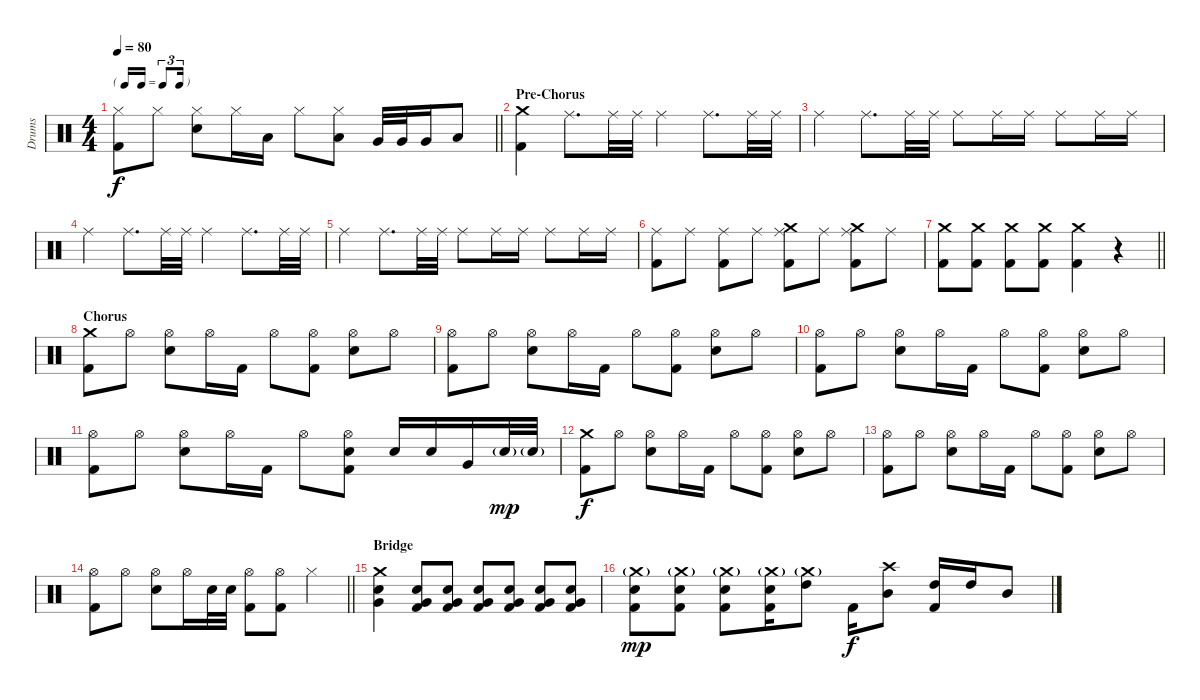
\track ("Drums" "Drums") {instrument percussion}
\staff {score}
\articulation defaults
\ts (4 4)
\tf triplet16th
\tempo 80
\clef neutral
\barLineRight lightlight
\ks c
("Hi-Hat (closed)" "Kick (hit) 2").8{dy f} "Hi-Hat (closed)".8 ("Hi-Hat (closed)" "Snare (hit) 2").8 "Hi-Hat (closed)".16 "Low Tom (hit)".16 "Hi-Hat (closed)".8 ("Hi-Hat (closed)" "Low Tom (hit)").8 "Very Low Tom (hit)".32 "Very Low Tom (hit)".32 "Very Low Tom (hit)".16 "Low Floor Tom (hit)".8 |
\section ("" "Pre-Chorus")
("Crash medium (hit)" "Kick (hit) 2").4 "Ride (middle)".8{d} "Ride (middle)".32 "Ride (middle)".32 "Ride (middle)".4 "Ride (middle)".8{d} "Ride (middle)".32 "Ride (middle)".32 |
"Ride (middle)".4 "Ride (middle)".8{d} "Ride (middle)".32 "Ride (middle)".32 "Ride (middle)".8 "Ride (middle)".16 "Ride (middle)".16 "Ride (middle)".8 "Ride (middle)".16 "Ride (middle)".16 |
"Ride (middle)".4 "Ride (middle)".8{d} "Ride (middle)".32 "Ride (middle)".32 "Ride (middle)".4 "Ride (middle)".8{d} "Ride (middle)".32 "Ride (middle)".32 |
"Ride (middle)".4 "Ride (middle)".8{d} "Ride (middle)".32 "Ride (middle)".32 "Ride (middle)".8 "Ride (middle)".16 "Ride (middle)".16 "Ride (middle)".8 "Ride (middle)".16 "Ride (middle)".16 |
("Ride (middle)" "Kick (hit) 2").8 "Ride (middle)".8 ("Ride (middle)" "Kick (hit) 2").8 "Ride (middle)".8 ("Ride (middle)" "Crash medium (hit)" "Kick (hit) 2").8 "Ride (middle)".8 ("Ride (middle)" "Crash medium (hit)" "Kick (hit) 2").8 "Ride (middle)".8 |
\barLineRight lightlight
("Crash medium (hit)" "Kick (hit) 2").8 ("Crash medium (hit)" "Kick (hit) 2").8 ("Crash medium (hit)" "Kick (hit) 2").8 ("Crash medium (hit)" "Kick (hit) 2").8 ("Crash medium (hit)" "Kick (hit) 2").4 r.4 |
\section ("" "Chorus")
("Crash medium (hit)" "Kick (hit) 2").8 "Hi-Hat (open)".8 ("Hi-Hat (open)" "Snare (hit) 2").8 "Hi-Hat (open)".16 "Kick (hit) 2".16 "Hi-Hat (open)".8 ("Hi-Hat (open)" "Kick (hit) 2").8 ("Hi-Hat (open)" "Snare (hit) 2").8 "Hi-Hat (open)".8 |
("Hi-Hat (open)" "Kick (hit) 2").8 "Hi-Hat (open)".8 ("Hi-Hat (open)" "Snare (hit) 2").8 "Hi-Hat (open)".16 "Kick (hit) 2".16 "Hi-Hat (open)".8 ("Hi-Hat (open)" "Kick (hit) 2").8 ("Hi-Hat (open)" "Snare (hit) 2").8 "Hi-Hat (open)".8 |
("Hi-Hat (open)" "Kick (hit) 2").8 "Hi-Hat (open)".8 ("Hi-Hat (open)" "Snare (hit) 2").8 "Hi-Hat (open)".16 "Kick (hit) 2".16 "Hi-Hat (open)".8 ("Hi-Hat (open)" "Kick (hit) 2").8 ("Hi-Hat (open)" "Snare (hit) 2").8 "Hi-Hat (open)".8 |
("Hi-Hat (open)" "Kick (hit) 2").8 "Hi-Hat (open)".8 ("Hi-Hat (open)" "Snare (hit) 2").8 "Hi-Hat (open)".16 "Kick (hit) 2".16 "Hi-Hat (open)".8 ("Hi-Hat (open)" "Snare (hit) 2" "Kick (hit) 2").8 "Snare (hit) 2".16 "Snare (hit) 2".16 "Very Low Tom (hit)".16 "Snare (hit) 2"{g}.32{dy mp} "Snare (hit) 2"{g}.32 |
("Crash medium (hit)" "Kick (hit) 2").8{dy f} "Hi-Hat (open)".8 ("Hi-Hat (open)" "Snare (hit) 2").8 "Hi-Hat (open)".16 "Kick (hit) 2".16 "Hi-Hat (open)".8 ("Hi-Hat (open)" "Kick (hit) 2").8 ("Hi-Hat (open)" "Snare (hit) 2").8 "Hi-Hat (open)".8 |
("Hi-Hat (open)" "Kick (hit) 2").8 "Hi-Hat (open)".8 ("Hi-Hat (open)" "Snare (hit) 2").8 "Hi-Hat (open)".16 "Kick (hit) 2".16 "Hi-Hat (open)".8 ("Hi-Hat (open)" "Kick (hit) 2").8 ("Hi-Hat (open)" "Snare (hit) 2").8 "Hi-Hat (open)".8 |
\barLineRight lightlight
("Hi-Hat (open)" "Kick (hit) 2").8 "Hi-Hat (open)".8 ("Hi-Hat (open)" "Snare (hit) 2").8 "Hi-Hat (open)".16 "Snare (hit) 2".32 "Snare (hit) 2".32 ("Hi-Hat (open)" "Kick (hit) 2").8 ("Hi-Hat (open)" "Kick (hit) 2").8 "Hi-Hat (closed)".4 |
\section ("" "Bridge")
("Crash medium (hit)" "Snare (hit) 2" "Very Low Tom (hit)").4 ("Snare (hit) 2" "Very Low Tom (hit)" "Kick (hit) 2").8 ("Snare (hit) 2" "Very Low Tom (hit)" "Kick (hit) 2").8 ("Snare (hit) 2" "Very Low Tom (hit)" "Kick (hit) 2").8 ("Snare (hit) 2" "Very Low Tom (hit)" "Kick (hit) 2").8 ("Snare (hit) 2" "Very Low Tom (hit)" "Kick (hit) 2").8 ("Snare (hit) 2" "Very Low Tom (hit)" "Kick (hit) 2").8 |
("Crash medium (hit)"{g} "Snare (hit) 2" "Kick (hit) 2").8{dy mp} ("Crash medium (hit)"{g} "Snare (hit) 2" "Kick (hit) 2").8 ("Crash medium (hit)"{g} "Snare (hit) 2" "Kick (hit) 2").8 ("Crash medium (hit)"{g} "Snare (hit) 2" "Kick (hit) 2").16 ("Crash medium (hit)"{g} "High Tom (hit)").8 "Kick (hit) 2".16{dy f} ("Crash high (hit)" "Mid Tom (hit)").8 ("High Tom (hit)" "Kick (hit) 2").16 "High Tom (hit)".16 "Mid Tom (hit)".8
